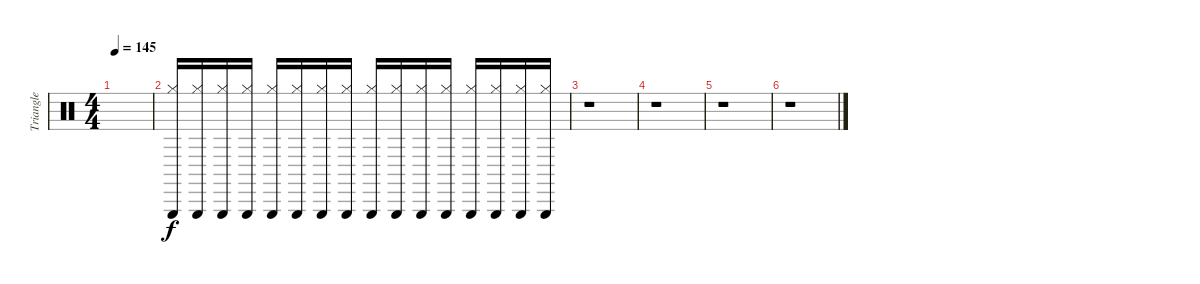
\track ("Triangle" "Triangle") {instrument percussion}
\staff {score}
\articulation defaults
\ts (4 4)
\tempo 145
\clef neutral
\ks c
|
("Triangle (hit)" "Hi-Hat (closed)").16 ("Triangle (hit)" "Hi-Hat (closed)").16 ("Triangle (hit)" "Hi-Hat (closed)").16 ("Triangle (hit)" "Hi-Hat (closed)").16 ("Triangle (hit)" "Hi-Hat (closed)").16 ("Triangle (hit)" "Hi-Hat (closed)").16 ("Triangle (hit)" "Hi-Hat (closed)").16 ("Triangle (hit)" "Hi-Hat (closed)").16 ("Triangle (hit)" "Hi-Hat (closed)").16 ("Triangle (hit)" "Hi-Hat (closed)").16 ("Triangle (hit)" "Hi-Hat (closed)").16 ("Triangle (hit)" "Hi-Hat (closed)").16 ("Triangle (hit)" "Hi-Hat (closed)").16 ("Triangle (hit)" "Hi-Hat (closed)").16 ("Triangle (hit)" "Hi-Hat (closed)").16 ("Triangle (hit)" "Hi-Hat (closed)").16 |
r.1 |
r.1 |
r.1 |
r.1
